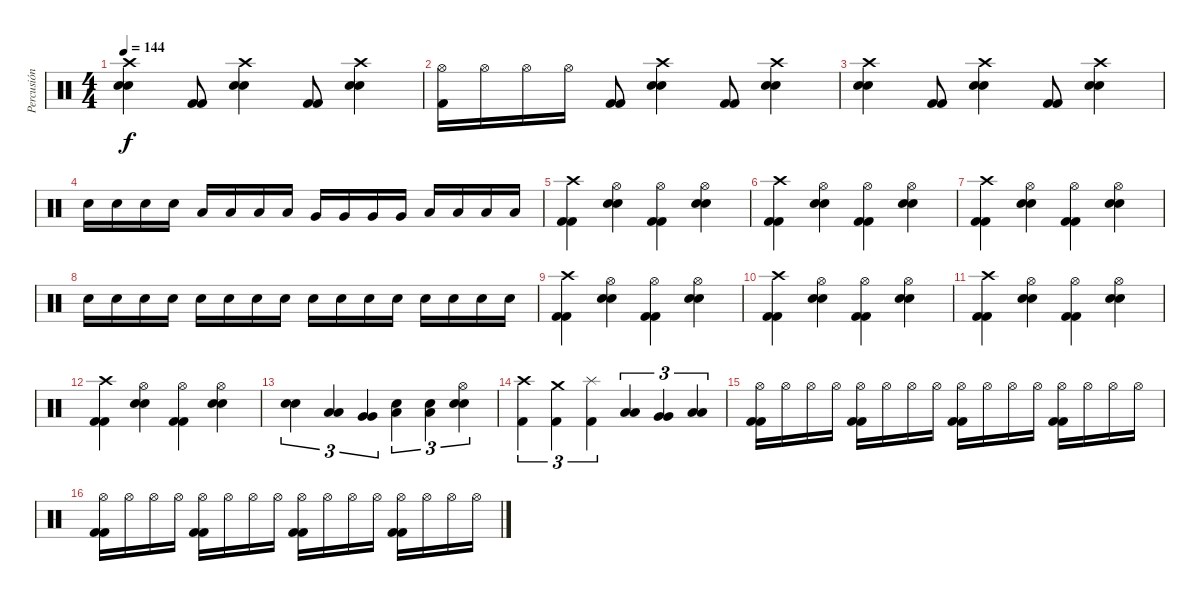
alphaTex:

\track ("Percusión" "Percusión") {instrument percussion}
\staff {score}
\articulation defaults
\ts (4 4)
\tempo 144
\clef neutral
\ks c
("Crash high (hit)" "Snare (hit) 2" "Snare (hit) 2").4{dy f} ("Kick (hit) 2" "Kick (hit) 2").8 ("Crash high (hit)" "Snare (hit) 2" "Snare (hit) 2").4 ("Kick (hit) 2" "Kick (hit) 2").8 ("Crash high (hit)" "Snare (hit) 2" "Snare (hit) 2").4 |
("Hi-Hat (open)" "Kick (hit) 2").16 "Hi-Hat (open)".16 "Hi-Hat (open)".16 "Hi-Hat (open)".16 ("Kick (hit) 2" "Kick (hit) 2").8 ("Crash high (hit)" "Snare (hit) 2" "Snare (hit) 2").4 ("Kick (hit) 2" "Kick (hit) 2").8 ("Crash high (hit)" "Snare (hit) 2" "Snare (hit) 2").4 |
("Crash high (hit)" "Snare (hit) 2" "Snare (hit) 2").4 ("Kick (hit) 2" "Kick (hit) 2").8 ("Crash high (hit)" "Snare (hit) 2" "Snare (hit) 2").4 ("Kick (hit) 2" "Kick (hit) 2").8 ("Crash high (hit)" "Snare (hit) 2" "Snare (hit) 2").4 |
"Snare (hit) 2".16 "Snare (hit) 2".16 "Snare (hit) 2".16 "Snare (hit) 2".16 "Low Tom (hit)".16 "Low Tom (hit)".16 "Low Tom (hit)".16 "Low Tom (hit)".16 "Very Low Tom (hit)".16 "Very Low Tom (hit)".16 "Very Low Tom (hit)".16 "Very Low Tom (hit)".16 "Low Floor Tom (hit)".16 "Low Floor Tom (hit)".16 "Low Floor Tom (hit)".16 "Low Floor Tom (hit)".16 |
("Crash high (hit)" "Kick (hit) 2" "Kick (hit) 2").4 ("Hi-Hat (open)" "Snare (hit) 2" "Snare (hit) 2").4 ("Hi-Hat (open)" "Kick (hit) 2" "Kick (hit) 2").4 ("Hi-Hat (open)" "Snare (hit) 2" "Snare (hit) 2").4 |
("Crash high (hit)" "Kick (hit) 2" "Kick (hit) 2").4 ("Hi-Hat (open)" "Snare (hit) 2" "Snare (hit) 2").4 ("Hi-Hat (open)" "Kick (hit) 2" "Kick (hit) 2").4 ("Hi-Hat (open)" "Snare (hit) 2" "Snare (hit) 2").4 |
("Crash high (hit)" "Kick (hit) 2" "Kick (hit) 2").4 ("Hi-Hat (open)" "Snare (hit) 2" "Snare (hit) 2").4 ("Hi-Hat (open)" "Kick (hit) 2" "Kick (hit) 2").4 ("Hi-Hat (open)" "Snare (hit) 2" "Snare (hit) 2").4 |
"Snare (hit) 2".16 "Snare (hit) 2".16 "Snare (hit) 2".16 "Snare (hit) 2".16 "Snare (hit) 2".16 "Snare (hit) 2".16 "Snare (hit) 2".16 "Snare (hit) 2".16 "Snare (hit) 2".16 "Snare (hit) 2".16 "Snare (hit) 2".16 "Snare (hit) 2".16 "Snare (hit) 2".16 "Snare (hit) 2".16 "Snare (hit) 2".16 "Snare (hit) 2".16 |
("Crash high (hit)" "Kick (hit) 2" "Kick (hit) 2").4 ("Hi-Hat (open)" "Snare (hit) 2" "Snare (hit) 2").4 ("Hi-Hat (open)" "Kick (hit) 2" "Kick (hit) 2").4 ("Hi-Hat (open)" "Snare (hit) 2" "Snare (hit) 2").4 |
("Crash high (hit)" "Kick (hit) 2" "Kick (hit) 2").4 ("Hi-Hat (open)" "Snare (hit) 2" "Snare (hit) 2").4 ("Hi-Hat (open)" "Kick (hit) 2" "Kick (hit) 2").4 ("Hi-Hat (open)" "Snare (hit) 2" "Snare (hit) 2").4 |
("Crash high (hit)" "Kick (hit) 2" "Kick (hit) 2").4 ("Hi-Hat (open)" "Snare (hit) 2" "Snare (hit) 2").4 ("Hi-Hat (open)" "Kick (hit) 2" "Kick (hit) 2").4 ("Hi-Hat (open)" "Snare (hit) 2" "Snare (hit) 2").4 |
("Crash high (hit)" "Kick (hit) 2" "Kick (hit) 2").4 ("Hi-Hat (open)" "Snare (hit) 2" "Snare (hit) 2").4 ("Hi-Hat (open)" "Kick (hit) 2" "Kick (hit) 2").4 ("Hi-Hat (open)" "Snare (hit) 2" "Snare (hit) 2").4 |
("Snare (hit) 2" "Snare (hit) 2").4{tu (3 2)} ("Low Tom (hit)" "Low Tom (hit)").4{tu (3 2)} ("Very Low Tom (hit)" "Very Low Tom (hit)").4{tu (3 2)} ("Snare (hit) 2" "Low Tom (hit)").4{tu (3 2)} ("Snare (hit) 2" "Low Tom (hit)").4{tu (3 2)} ("Hi-Hat (open)" "Snare (hit) 2" "Snare (hit) 2").4{tu (3 2)} |
("Crash high (hit)" "Kick (hit) 2").4{tu (3 2)} ("Crash medium (hit)" "Kick (hit) 2").4{tu (3 2)} ("Splash (hit)" "Kick (hit) 2").4{tu (3 2)} ("Low Tom (hit)" "Low Tom (hit)").4{tu (3 2)} ("Very Low Tom (hit)" "Very Low Tom (hit)").4{tu (3 2)} ("Low Floor Tom (hit)" "Low Floor Tom (hit)").4{tu (3 2)} |
("Hi-Hat (open)" "Kick (hit) 2" "Kick (hit) 2").16 "Hi-Hat (open)".16 "Hi-Hat (open)".16 "Hi-Hat (open)".16 ("Hi-Hat (open)" "Kick (hit) 2" "Kick (hit) 2").16 "Hi-Hat (open)".16 "Hi-Hat (open)".16 "Hi-Hat (open)".16 ("Hi-Hat (open)" "Kick (hit) 2" "Kick (hit) 2").16 "Hi-Hat (open)".16 "Hi-Hat (open)".16 "Hi-Hat (open)".16 ("Hi-Hat (open)" "Kick (hit) 2" "Kick (hit) 2").16 "Hi-Hat (open)".16 "Hi-Hat (open)".16 "Hi-Hat (open)".16 |
("Hi-Hat (open)" "Kick (hit) 2" "Kick (hit) 2").16 "Hi-Hat (open)".16 "Hi-Hat (open)".16 "Hi-Hat (open)".16 ("Hi-Hat (open)" "Kick (hit) 2" "Kick (hit) 2").16 "Hi-Hat (open)".16 "Hi-Hat (open)".16 "Hi-Hat (open)".16 ("Hi-Hat (open)" "Kick (hit) 2" "Kick (hit) 2").16 "Hi-Hat (open)".16 "Hi-Hat (open)".16 "Hi-Hat (open)".16 ("Hi-Hat (open)" "Kick (hit) 2" "Kick (hit) 2").16 "Hi-Hat (open)".16 "Hi-Hat (open)".16 "Hi-Hat (open)".16
